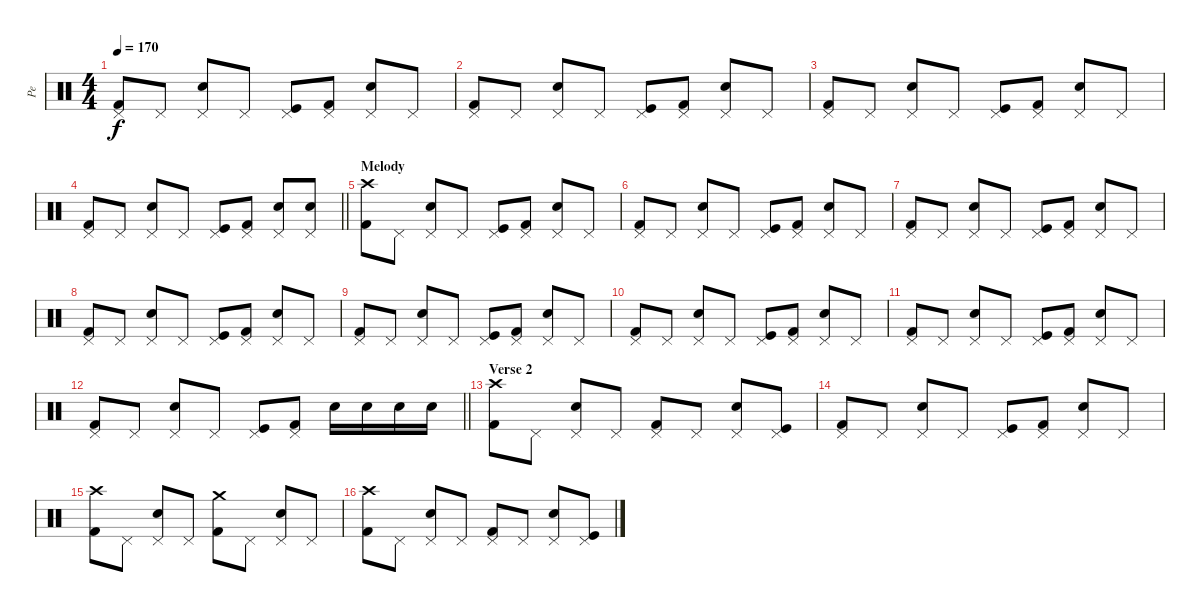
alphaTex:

\track ("Pe" "Pe") {instrument percussion}
\staff {score}
\articulation defaults
\ts (4 4)
\tempo 170
\clef neutral
\ks c
("Kick (hit) 2" "Pedal Hi-Hat (hit)").8{dy f} "Pedal Hi-Hat (hit)".8 ("Electric Snare (hit)" "Pedal Hi-Hat (hit)").8 "Pedal Hi-Hat (hit)".8 ("Kick (hit)" "Pedal Hi-Hat (hit)").8 ("Kick (hit) 2" "Pedal Hi-Hat (hit)").8 ("Electric Snare (hit)" "Pedal Hi-Hat (hit)").8 "Pedal Hi-Hat (hit)".8 |
("Kick (hit) 2" "Pedal Hi-Hat (hit)").8 "Pedal Hi-Hat (hit)".8 ("Electric Snare (hit)" "Pedal Hi-Hat (hit)").8 "Pedal Hi-Hat (hit)".8 ("Kick (hit)" "Pedal Hi-Hat (hit)").8 ("Kick (hit) 2" "Pedal Hi-Hat (hit)").8 ("Electric Snare (hit)" "Pedal Hi-Hat (hit)").8 "Pedal Hi-Hat (hit)".8 |
("Kick (hit) 2" "Pedal Hi-Hat (hit)").8 "Pedal Hi-Hat (hit)".8 ("Electric Snare (hit)" "Pedal Hi-Hat (hit)").8 "Pedal Hi-Hat (hit)".8 ("Kick (hit)" "Pedal Hi-Hat (hit)").8 ("Kick (hit) 2" "Pedal Hi-Hat (hit)").8 ("Electric Snare (hit)" "Pedal Hi-Hat (hit)").8 "Pedal Hi-Hat (hit)".8 |
\barLineRight lightlight
("Kick (hit) 2" "Pedal Hi-Hat (hit)").8 "Pedal Hi-Hat (hit)".8 ("Electric Snare (hit)" "Pedal Hi-Hat (hit)").8 "Pedal Hi-Hat (hit)".8 ("Kick (hit)" "Pedal Hi-Hat (hit)").8 ("Kick (hit) 2" "Pedal Hi-Hat (hit)").8 ("Electric Snare (hit)" "Pedal Hi-Hat (hit)").8 ("Electric Snare (hit)" "Pedal Hi-Hat (hit)").8 |
\section ("" "Melody")
("Kick (hit) 2" "Crash high (hit)").8 "Pedal Hi-Hat (hit)".8 ("Electric Snare (hit)" "Pedal Hi-Hat (hit)").8 "Pedal Hi-Hat (hit)".8 ("Kick (hit)" "Pedal Hi-Hat (hit)").8 ("Kick (hit) 2" "Pedal Hi-Hat (hit)").8 ("Electric Snare (hit)" "Pedal Hi-Hat (hit)").8 "Pedal Hi-Hat (hit)".8 |
("Kick (hit) 2" "Pedal Hi-Hat (hit)").8 "Pedal Hi-Hat (hit)".8 ("Electric Snare (hit)" "Pedal Hi-Hat (hit)").8 "Pedal Hi-Hat (hit)".8 ("Kick (hit)" "Pedal Hi-Hat (hit)").8 ("Kick (hit) 2" "Pedal Hi-Hat (hit)").8 ("Electric Snare (hit)" "Pedal Hi-Hat (hit)").8 "Pedal Hi-Hat (hit)".8 |
("Kick (hit) 2" "Pedal Hi-Hat (hit)").8 "Pedal Hi-Hat (hit)".8 ("Electric Snare (hit)" "Pedal Hi-Hat (hit)").8 "Pedal Hi-Hat (hit)".8 ("Kick (hit)" "Pedal Hi-Hat (hit)").8 ("Kick (hit) 2" "Pedal Hi-Hat (hit)").8 ("Electric Snare (hit)" "Pedal Hi-Hat (hit)").8 "Pedal Hi-Hat (hit)".8 |
("Kick (hit) 2" "Pedal Hi-Hat (hit)").8 "Pedal Hi-Hat (hit)".8 ("Electric Snare (hit)" "Pedal Hi-Hat (hit)").8 "Pedal Hi-Hat (hit)".8 ("Kick (hit)" "Pedal Hi-Hat (hit)").8 ("Kick (hit) 2" "Pedal Hi-Hat (hit)").8 ("Electric Snare (hit)" "Pedal Hi-Hat (hit)").8 "Pedal Hi-Hat (hit)".8 |
("Kick (hit) 2" "Pedal Hi-Hat (hit)").8 "Pedal Hi-Hat (hit)".8 ("Electric Snare (hit)" "Pedal Hi-Hat (hit)").8 "Pedal Hi-Hat (hit)".8 ("Kick (hit)" "Pedal Hi-Hat (hit)").8 ("Kick (hit) 2" "Pedal Hi-Hat (hit)").8 ("Electric Snare (hit)" "Pedal Hi-Hat (hit)").8 "Pedal Hi-Hat (hit)".8 |
("Kick (hit) 2" "Pedal Hi-Hat (hit)").8 "Pedal Hi-Hat (hit)".8 ("Electric Snare (hit)" "Pedal Hi-Hat (hit)").8 "Pedal Hi-Hat (hit)".8 ("Kick (hit)" "Pedal Hi-Hat (hit)").8 ("Kick (hit) 2" "Pedal Hi-Hat (hit)").8 ("Electric Snare (hit)" "Pedal Hi-Hat (hit)").8 "Pedal Hi-Hat (hit)".8 |
("Kick (hit) 2" "Pedal Hi-Hat (hit)").8 "Pedal Hi-Hat (hit)".8 ("Electric Snare (hit)" "Pedal Hi-Hat (hit)").8 "Pedal Hi-Hat (hit)".8 ("Kick (hit)" "Pedal Hi-Hat (hit)").8 ("Kick (hit) 2" "Pedal Hi-Hat (hit)").8 ("Electric Snare (hit)" "Pedal Hi-Hat (hit)").8 "Pedal Hi-Hat (hit)".8 |
\barLineRight lightlight
("Kick (hit) 2" "Pedal Hi-Hat (hit)").8 "Pedal Hi-Hat (hit)".8 ("Electric Snare (hit)" "Pedal Hi-Hat (hit)").8 "Pedal Hi-Hat (hit)".8 ("Kick (hit)" "Pedal Hi-Hat (hit)").8 ("Kick (hit) 2" "Pedal Hi-Hat (hit)").8 "Electric Snare (hit)".16 "Electric Snare (hit)".16 "Electric Snare (hit)".16 "Electric Snare (hit)".16 |
\section ("" "Verse 2")
("Kick (hit) 2" "Crash high (hit)").8 "Pedal Hi-Hat (hit)".8 ("Electric Snare (hit)" "Pedal Hi-Hat (hit)").8 "Pedal Hi-Hat (hit)".8 ("Kick (hit) 2" "Pedal Hi-Hat (hit)").8 "Pedal Hi-Hat (hit)".8 ("Electric Snare (hit)" "Pedal Hi-Hat (hit)").8 ("Kick (hit)" "Pedal Hi-Hat (hit)").8 |
("Kick (hit) 2" "Pedal Hi-Hat (hit)").8 "Pedal Hi-Hat (hit)".8 ("Electric Snare (hit)" "Pedal Hi-Hat (hit)").8 "Pedal Hi-Hat (hit)".8 ("Kick (hit)" "Pedal Hi-Hat (hit)").8 ("Kick (hit) 2" "Pedal Hi-Hat (hit)").8 ("Electric Snare (hit)" "Pedal Hi-Hat (hit)").8 "Pedal Hi-Hat (hit)".8 |
("Kick (hit) 2" "Crash high (hit)").8 "Pedal Hi-Hat (hit)".8 ("Electric Snare (hit)" "Pedal Hi-Hat (hit)").8 "Pedal Hi-Hat (hit)".8 ("Kick (hit) 2" "Crash medium (hit)").8 "Pedal Hi-Hat (hit)".8 ("Electric Snare (hit)" "Pedal Hi-Hat (hit)").8 "Pedal Hi-Hat (hit)".8 |
("Kick (hit) 2" "Crash high (hit)").8 "Pedal Hi-Hat (hit)".8 ("Electric Snare (hit)" "Pedal Hi-Hat (hit)").8 "Pedal Hi-Hat (hit)".8 ("Kick (hit) 2" "Pedal Hi-Hat (hit)").8 "Pedal Hi-Hat (hit)".8 ("Electric Snare (hit)" "Pedal Hi-Hat (hit)").8 ("Kick (hit)" "Pedal Hi-Hat (hit)").8
